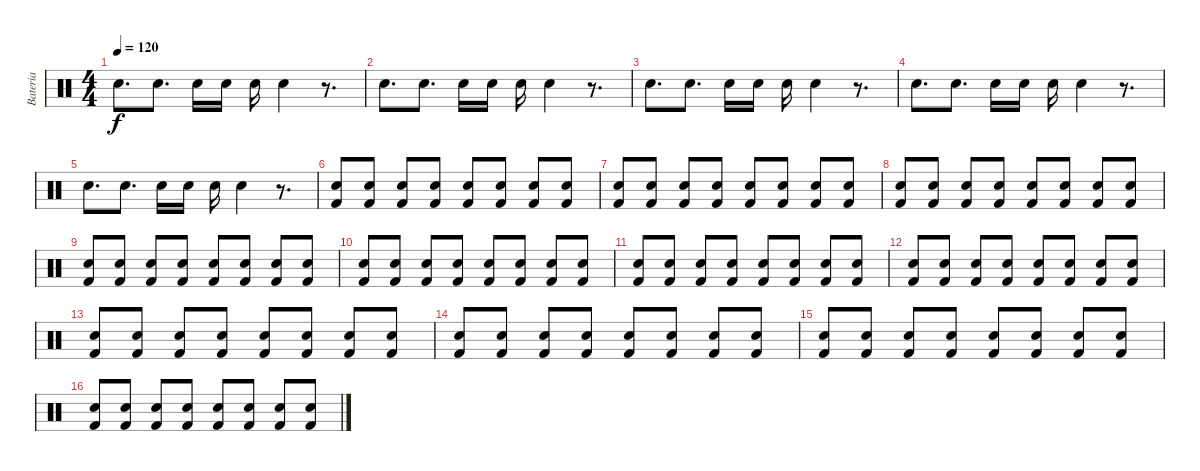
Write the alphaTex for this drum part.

\track ("Bateria" "Bateria") {instrument percussion}
\staff {score}
\articulation defaults
\ts (4 4)
\tempo 120
\clef neutral
\ks c "Electric Snare (hit)".8{d dy f} "Electric Snare (hit)".8{d} "Electric Snare (hit)".16 "Electric Snare (hit)".16 "Electric Snare (hit)".16 "Electric Snare (hit)".4
r.8{d} |
"Electric Snare (hit)".8{d} "Electric Snare (hit)".8{d} "Electric Snare (hit)".16 "Electric Snare (hit)".16 "Electric Snare (hit)".16 "Electric Snare (hit)".4 r.8{d} |
"Electric Snare (hit)".8{d} "Electric Snare (hit)".8{d} "Electric Snare (hit)".16 "Electric Snare (hit)".16 "Electric Snare (hit)".16 "Electric Snare (hit)".4 r.8{d} |
"Electric Snare (hit)".8{d} "Electric Snare (hit)".8{d} "Electric Snare (hit)".16 "Electric Snare (hit)".16 "Electric Snare (hit)".16 "Electric Snare (hit)".4 r.8{d} |
"Electric Snare (hit)".8{d} "Electric Snare (hit)".8{d} "Electric Snare (hit)".16 "Electric Snare (hit)".16 "Electric Snare (hit)".16 "Electric Snare (hit)".4 r.8{d} |
("Electric Snare (hit)" "Kick (hit) 2").8 ("Electric Snare (hit)" "Kick (hit) 2").8 ("Electric Snare (hit)" "Kick (hit) 2").8 ("Electric Snare (hit)" "Kick (hit) 2").8 ("Electric Snare (hit)" "Kick (hit) 2").8 ("Electric Snare (hit)" "Kick (hit) 2").8 ("Electric Snare (hit)" "Kick (hit) 2").8 ("Electric Snare (hit)" "Kick (hit) 2").8 |
("Electric Snare (hit)" "Kick (hit) 2").8 ("Electric Snare (hit)" "Kick (hit) 2").8 ("Electric Snare (hit)" "Kick (hit) 2").8 ("Electric Snare (hit)" "Kick (hit) 2").8 ("Electric Snare (hit)" "Kick (hit) 2").8 ("Electric Snare (hit)" "Kick (hit) 2").8 ("Electric Snare (hit)" "Kick (hit) 2").8 ("Electric Snare (hit)" "Kick (hit) 2").8 |
("Electric Snare (hit)" "Kick (hit) 2").8 ("Electric Snare (hit)" "Kick (hit) 2").8 ("Electric Snare (hit)" "Kick (hit) 2").8 ("Electric Snare (hit)" "Kick (hit) 2").8 ("Electric Snare (hit)" "Kick (hit) 2").8 ("Electric Snare (hit)" "Kick (hit) 2").8 ("Electric Snare (hit)" "Kick (hit) 2").8 ("Electric Snare (hit)" "Kick (hit) 2").8 |
("Electric Snare (hit)" "Kick (hit) 2").8 ("Electric Snare (hit)" "Kick (hit) 2").8 ("Electric Snare (hit)" "Kick (hit) 2").8 ("Electric Snare (hit)" "Kick (hit) 2").8 ("Electric Snare (hit)" "Kick (hit) 2").8 ("Electric Snare (hit)" "Kick (hit) 2").8 ("Electric Snare (hit)" "Kick (hit) 2").8 ("Electric Snare (hit)" "Kick (hit) 2").8 |
("Electric Snare (hit)" "Kick (hit) 2").8 ("Electric Snare (hit)" "Kick (hit) 2").8 ("Electric Snare (hit)" "Kick (hit) 2").8 ("Electric Snare (hit)" "Kick (hit) 2").8 ("Electric Snare (hit)" "Kick (hit) 2").8 ("Electric Snare (hit)" "Kick (hit) 2").8 ("Electric Snare (hit)" "Kick (hit) 2").8 ("Electric Snare (hit)" "Kick (hit) 2").8 |
("Electric Snare (hit)" "Kick (hit) 2").8 ("Electric Snare (hit)" "Kick (hit) 2").8 ("Electric Snare (hit)" "Kick (hit) 2").8 ("Electric Snare (hit)" "Kick (hit) 2").8 ("Electric Snare (hit)" "Kick (hit) 2").8 ("Electric Snare (hit)" "Kick (hit) 2").8 ("Electric Snare (hit)" "Kick (hit) 2").8 ("Electric Snare (hit)" "Kick (hit) 2").8 |
("Electric Snare (hit)" "Kick (hit) 2").8 ("Electric Snare (hit)" "Kick (hit) 2").8 ("Electric Snare (hit)" "Kick (hit) 2").8 ("Electric Snare (hit)" "Kick (hit) 2").8 ("Electric Snare (hit)" "Kick (hit) 2").8 ("Electric Snare (hit)" "Kick (hit) 2").8 ("Electric Snare (hit)" "Kick (hit) 2").8 ("Electric Snare (hit)" "Kick (hit) 2").8 |
("Electric Snare (hit)" "Kick (hit) 2").8 ("Electric Snare (hit)" "Kick (hit) 2").8 ("Electric Snare (hit)" "Kick (hit) 2").8 ("Electric Snare (hit)" "Kick (hit) 2").8 ("Electric Snare (hit)" "Kick (hit) 2").8 ("Electric Snare (hit)" "Kick (hit) 2").8 ("Electric Snare (hit)" "Kick (hit) 2").8 ("Electric Snare (hit)" "Kick (hit) 2").8 |
("Electric Snare (hit)" "Kick (hit) 2").8 ("Electric Snare (hit)" "Kick (hit) 2").8 ("Electric Snare (hit)" "Kick (hit) 2").8 ("Electric Snare (hit)" "Kick (hit) 2").8 ("Electric Snare (hit)" "Kick (hit) 2").8 ("Electric Snare (hit)" "Kick (hit) 2").8 ("Electric Snare (hit)" "Kick (hit) 2").8 ("Electric Snare (hit)" "Kick (hit) 2").8 |
("Electric Snare (hit)" "Kick (hit) 2").8 ("Electric Snare (hit)" "Kick (hit) 2").8 ("Electric Snare (hit)" "Kick (hit) 2").8 ("Electric Snare (hit)" "Kick (hit) 2").8 ("Electric Snare (hit)" "Kick (hit) 2").8 ("Electric Snare (hit)" "Kick (hit) 2").8 ("Electric Snare (hit)" "Kick (hit) 2").8 ("Electric Snare (hit)" "Kick (hit) 2").8 |
("Electric Snare (hit)" "Kick (hit) 2").8 ("Electric Snare (hit)" "Kick (hit) 2").8 ("Electric Snare (hit)" "Kick (hit) 2").8 ("Electric Snare (hit)" "Kick (hit) 2").8 ("Electric Snare (hit)" "Kick (hit) 2").8 ("Electric Snare (hit)" "Kick (hit) 2").8 ("Electric Snare (hit)" "Kick (hit) 2").8 ("Electric Snare (hit)" "Kick (hit) 2").8
